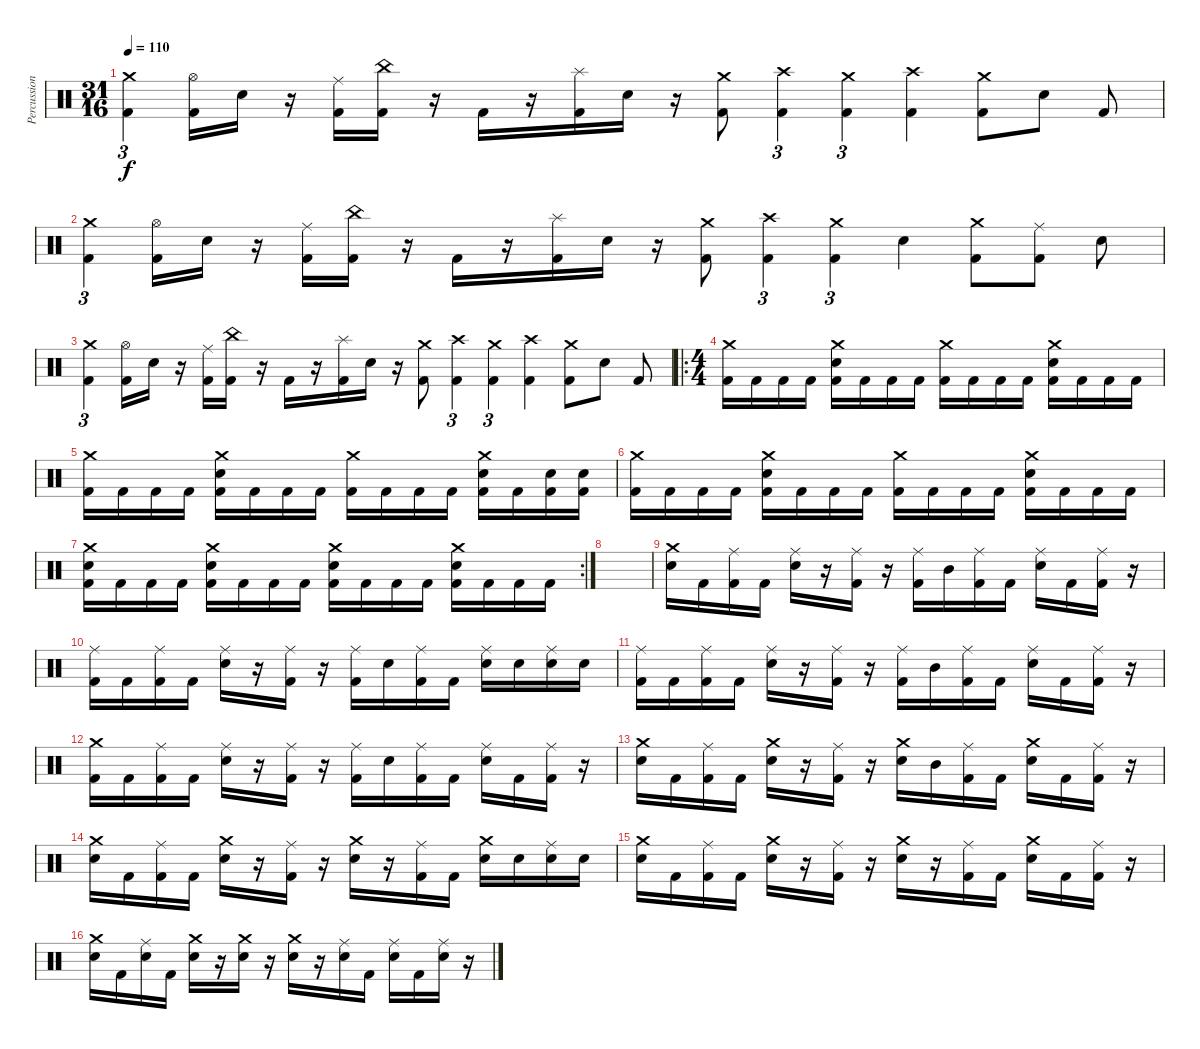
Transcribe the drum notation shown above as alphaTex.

\track ("Percussion" "Percussion") {instrument percussion}
\staff {score}
\articulation defaults
\ts (31 16)
\tempo 110
\clef neutral
\ks c
("Crash medium (hit)" "Kick (hit) 2").4{tu (3 2) dy f} ("Hi-Hat (open)" "Kick (hit) 2").16 "Electric Snare (hit)".16 r.16 ("Ride (middle)" "Kick (hit) 2").16 ("China (hit)" "Kick (hit) 2").16 r.16 "Kick (hit) 2".16 r.16 ("Splash (hit)" "Kick (hit) 2").16 "Electric Snare (hit)".16 r.16 ("Crash medium (hit)" "Kick (hit) 2").8 ("Crash high (hit)" "Kick (hit) 2").4{tu (3 2)} ("Crash medium (hit)" "Kick (hit) 2").4{tu (3 2)} ("Crash high (hit)" "Kick (hit) 2").4 ("Crash medium (hit)" "Kick (hit) 2").8 "Electric Snare (hit)".8 "Kick (hit) 2".8 |
("Crash medium (hit)" "Kick (hit) 2").4{tu (3 2)} ("Hi-Hat (open)" "Kick (hit) 2").16 "Electric Snare (hit)".16 r.16 ("Ride (middle)" "Kick (hit) 2").16 ("China (hit)" "Kick (hit) 2").16 r.16 "Kick (hit) 2".16 r.16 ("Splash (hit)" "Kick (hit) 2").16 "Electric Snare (hit)".16 r.16 ("Crash medium (hit)" "Kick (hit) 2").8 ("Crash high (hit)" "Kick (hit) 2").4{tu (3 2)} ("Crash medium (hit)" "Kick (hit) 2").4{tu (3 2)} "Electric Snare (hit)".4 ("Crash medium (hit)" "Kick (hit) 2").8 ("Ride (middle)" "Kick (hit) 2").8 "Electric Snare (hit)".8 |
("Crash medium (hit)" "Kick (hit) 2").4{tu (3 2)} ("Hi-Hat (open)" "Kick (hit) 2").16 "Electric Snare (hit)".16 r.16 ("Ride (middle)" "Kick (hit) 2").16 ("China (hit)" "Kick (hit) 2").16 r.16 "Kick (hit) 2".16 r.16 ("Splash (hit)" "Kick (hit) 2").16 "Electric Snare (hit)".16 r.16 ("Crash medium (hit)" "Kick (hit) 2").8 ("Crash high (hit)" "Kick (hit) 2").4{tu (3 2)} ("Crash medium (hit)" "Kick (hit) 2").4{tu (3 2)} ("Crash high (hit)" "Kick (hit) 2").4 ("Crash medium (hit)" "Kick (hit) 2").8 "Electric Snare (hit)".8 "Kick (hit) 2".8 |
\ro
\ts (4 4)
("Crash medium (hit)" "Kick (hit) 2").16 "Kick (hit) 2".16 "Kick (hit) 2".16 "Kick (hit) 2".16 ("Electric Snare (hit)" "Crash medium (hit)" "Kick (hit) 2").16 "Kick (hit) 2".16 "Kick (hit) 2".16 "Kick (hit) 2".16 ("Crash medium (hit)" "Kick (hit) 2").16 "Kick (hit) 2".16 "Kick (hit) 2".16 "Kick (hit) 2".16 ("Electric Snare (hit)" "Crash medium (hit)" "Kick (hit) 2").16 "Kick (hit) 2".16 "Kick (hit) 2".16 "Kick (hit) 2".16 |
("Crash medium (hit)" "Kick (hit) 2").16 "Kick (hit) 2".16 "Kick (hit) 2".16 "Kick (hit) 2".16 ("Electric Snare (hit)" "Crash medium (hit)" "Kick (hit) 2").16 "Kick (hit) 2".16 "Kick (hit) 2".16 "Kick (hit) 2".16 ("Crash medium (hit)" "Kick (hit) 2").16 "Kick (hit) 2".16 "Kick (hit) 2".16 "Kick (hit) 2".16 ("Electric Snare (hit)" "Crash medium (hit)" "Kick (hit) 2").16 "Kick (hit) 2".16 ("Electric Snare (hit)" "Kick (hit) 2").16 ("Electric Snare (hit)" "Kick (hit) 2").16 |
("Crash medium (hit)" "Kick (hit) 2").16 "Kick (hit) 2".16 "Kick (hit) 2".16 "Kick (hit) 2".16 ("Electric Snare (hit)" "Crash medium (hit)" "Kick (hit) 2").16 "Kick (hit) 2".16 "Kick (hit) 2".16 "Kick (hit) 2".16 ("Crash medium (hit)" "Kick (hit) 2").16 "Kick (hit) 2".16 "Kick (hit) 2".16 "Kick (hit) 2".16 ("Electric Snare (hit)" "Crash medium (hit)" "Kick (hit) 2").16 "Kick (hit) 2".16 "Kick (hit) 2".16 "Kick (hit) 2".16 |
\rc 2
("Electric Snare (hit)" "Crash medium (hit)" "Kick (hit) 2").16 "Kick (hit) 2".16 "Kick (hit) 2".16 "Kick (hit) 2".16 ("Electric Snare (hit)" "Crash medium (hit)" "Kick (hit) 2").16 "Kick (hit) 2".16 "Kick (hit) 2".16 "Kick (hit) 2".16 ("Electric Snare (hit)" "Crash medium (hit)" "Kick (hit) 2").16 "Kick (hit) 2".16 "Kick (hit) 2".16 "Kick (hit) 2".16 ("Electric Snare (hit)" "Crash medium (hit)" "Kick (hit) 2").16 "Kick (hit) 2".16 "Kick (hit) 2".16 "Kick (hit) 2".16 |
|
("Crash medium (hit)" "Electric Snare (hit)").16 "Kick (hit) 2".16 ("Ride (middle)" "Kick (hit) 2").16 "Kick (hit) 2".16 ("Ride (middle)" "Electric Snare (hit)").16 r.16 ("Ride (middle)" "Kick (hit) 2").16 r.16 ("Ride (middle)" "Kick (hit) 2").16 "Mid Tom (hit)".16 ("Ride (middle)" "Kick (hit) 2").16 "Kick (hit) 2".16 ("Ride (middle)" "Electric Snare (hit)").16 "Kick (hit) 2".16 ("Ride (middle)" "Kick (hit) 2").16 r.16 |
("Ride (middle)" "Kick (hit) 2").16 "Kick (hit) 2".16 ("Ride (middle)" "Kick (hit) 2").16 "Kick (hit) 2".16 ("Ride (middle)" "Electric Snare (hit)").16 r.16 ("Ride (middle)" "Kick (hit) 2").16 r.16 ("Ride (middle)" "Kick (hit) 2").16 "Electric Snare (hit)".16 ("Ride (middle)" "Kick (hit) 2").16 "Kick (hit) 2".16 ("Ride (middle)" "Electric Snare (hit)").16 "Electric Snare (hit)".16 ("Ride (middle)" "Electric Snare (hit)").16 "Electric Snare (hit)".16 |
("Ride (middle)" "Kick (hit) 2").16 "Kick (hit) 2".16 ("Ride (middle)" "Kick (hit) 2").16 "Kick (hit) 2".16 ("Ride (middle)" "Electric Snare (hit)").16 r.16 ("Ride (middle)" "Kick (hit) 2").16 r.16 ("Ride (middle)" "Kick (hit) 2").16 "Mid Tom (hit)".16 ("Ride (middle)" "Kick (hit) 2").16 "Kick (hit) 2".16 ("Ride (middle)" "Electric Snare (hit)").16 "Kick (hit) 2".16 ("Ride (middle)" "Kick (hit) 2").16 r.16 |
("Crash medium (hit)" "Kick (hit) 2").16 "Kick (hit) 2".16 ("Ride (middle)" "Kick (hit) 2").16 "Kick (hit) 2".16 ("Ride (middle)" "Electric Snare (hit)").16 r.16 ("Ride (middle)" "Kick (hit) 2").16 r.16 ("Ride (middle)" "Kick (hit) 2").16 "Electric Snare (hit)".16 ("Ride (middle)" "Kick (hit) 2").16 "Kick (hit) 2".16 ("Ride (middle)" "Electric Snare (hit)").16 "Kick (hit) 2".16 ("Ride (middle)" "Kick (hit) 2").16 r.16 |
("Crash medium (hit)" "Electric Snare (hit)").16 "Kick (hit) 2".16 ("Ride (middle)" "Kick (hit) 2").16 "Kick (hit) 2".16 ("Crash medium (hit)" "Electric Snare (hit)").16 r.16 ("Ride (middle)" "Kick (hit) 2").16 r.16 ("Crash medium (hit)" "Electric Snare (hit)").16 "Mid Tom (hit)".16 ("Ride (middle)" "Kick (hit) 2").16 "Kick (hit) 2".16 ("Crash medium (hit)" "Electric Snare (hit)").16 "Kick (hit) 2".16 ("Ride (middle)" "Kick (hit) 2").16 r.16 |
("Crash medium (hit)" "Electric Snare (hit)").16 "Kick (hit) 2".16 ("Ride (middle)" "Kick (hit) 2").16 "Kick (hit) 2".16 ("Crash medium (hit)" "Electric Snare (hit)").16 r.16 ("Ride (middle)" "Kick (hit) 2").16 r.16 ("Crash medium (hit)" "Electric Snare (hit)").16 r.16 ("Ride (middle)" "Kick (hit) 2").16 "Kick (hit) 2".16 ("Crash medium (hit)" "Electric Snare (hit)").16 "Electric Snare (hit)".16 ("Ride (middle)" "Electric Snare (hit)").16 "Electric Snare (hit)".16 |
("Crash medium (hit)" "Electric Snare (hit)").16 "Kick (hit) 2".16 ("Ride (middle)" "Kick (hit) 2").16 "Kick (hit) 2".16 ("Crash medium (hit)" "Electric Snare (hit)").16 r.16 ("Ride (middle)" "Kick (hit) 2").16 r.16 ("Crash medium (hit)" "Electric Snare (hit)").16 r.16 ("Ride (middle)" "Kick (hit) 2").16 "Kick (hit) 2".16 ("Crash medium (hit)" "Electric Snare (hit)").16 "Kick (hit) 2".16 ("Ride (middle)" "Kick (hit) 2").16 r.16 |
("Crash medium (hit)" "Electric Snare (hit)").16 "Kick (hit) 2".16 ("Ride (middle)" "Electric Snare (hit)").16 "Kick (hit) 2".16 ("Crash medium (hit)" "Electric Snare (hit)").16 r.16 ("Crash medium (hit)" "Electric Snare (hit)").16 r.16 ("Crash medium (hit)" "Electric Snare (hit)").16 r.16 ("Ride (middle)" "Electric Snare (hit)").16 "Kick (hit) 2".16 ("Ride (middle)" "Electric Snare (hit)").16 "Kick (hit) 2".16 ("Ride (middle)" "Electric Snare (hit)").16 r.16
